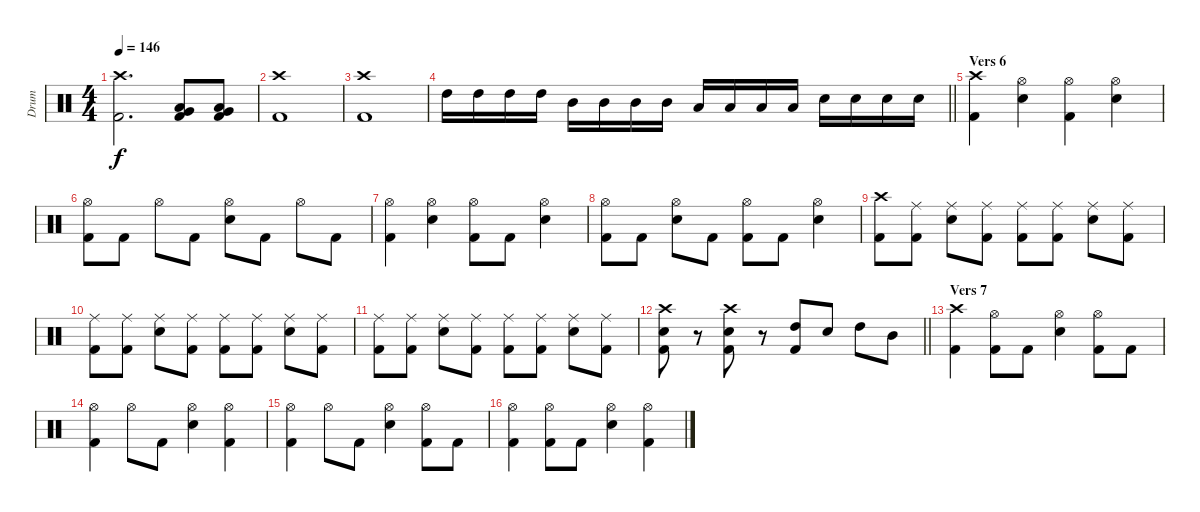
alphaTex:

\track ("Drum" "Drum") {instrument percussion}
\staff {score}
\articulation defaults
\ts (4 4)
\tempo 146
\clef neutral
\ks c
("Crash high (hit)" "Kick (hit) 2").2{d dy f} ("Very Low Tom (hit)" "Low Floor Tom (hit)" "Kick (hit) 2").8 ("Very Low Tom (hit)" "Low Floor Tom (hit)" "Kick (hit) 2").8 |
("Crash high (hit)" "Kick (hit) 2").1 |
("Crash high (hit)" "Kick (hit) 2").1 |
\barLineRight lightlight "High Tom (hit)".16 "High Tom (hit)".16 "High Tom (hit)".16 "High Tom (hit)".16 "Mid Tom (hit)".16 "Mid Tom (hit)".16 "Mid Tom (hit)".16 "Mid Tom (hit)".16 "Low Tom (hit)".16 "Low Tom (hit)".16 "Low Tom (hit)".16 "Low Tom (hit)".16 "Electric Snare (hit)".16 "Electric Snare (hit)".16 "Electric Snare (hit)".16 "Electric Snare (hit)".16
|
\section ("" "Vers 6")
("Crash high (hit)" "Kick (hit) 2").4 ("Hi-Hat (open)" "Electric Snare (hit)").4 ("Hi-Hat (open)" "Kick (hit) 2").4 ("Hi-Hat (open)" "Electric Snare (hit)").4 |
("Hi-Hat (open)" "Kick (hit) 2").8 "Kick (hit) 2".8 "Hi-Hat (open)".8 "Kick (hit) 2".8 ("Hi-Hat (open)" "Electric Snare (hit)").8 "Kick (hit) 2".8 "Hi-Hat (open)".8 "Kick (hit) 2".8 |
("Hi-Hat (open)" "Kick (hit) 2").4 ("Hi-Hat (open)" "Electric Snare (hit)").4 ("Hi-Hat (open)" "Kick (hit) 2").8 "Kick (hit) 2".8 ("Hi-Hat (open)" "Electric Snare (hit)").4 |
("Hi-Hat (open)" "Kick (hit) 2").8 "Kick (hit) 2".8 ("Hi-Hat (open)" "Electric Snare (hit)").8 "Kick (hit) 2".8 ("Hi-Hat (open)" "Kick (hit) 2").8 "Kick (hit) 2".8 ("Hi-Hat (open)" "Electric Snare (hit)").4 |
("Crash high (hit)" "Kick (hit) 2").8 ("Ride (middle)" "Kick (hit) 2").8 ("Ride (middle)" "Electric Snare (hit)").8 ("Ride (middle)" "Kick (hit) 2").8 ("Ride (middle)" "Kick (hit) 2").8 ("Ride (middle)" "Kick (hit) 2").8 ("Ride (middle)" "Electric Snare (hit)").8 ("Ride (middle)" "Kick (hit) 2").8 |
("Ride (middle)" "Kick (hit) 2").8 ("Ride (middle)" "Kick (hit) 2").8 ("Ride (middle)" "Electric Snare (hit)").8 ("Ride (middle)" "Kick (hit) 2").8 ("Ride (middle)" "Kick (hit) 2").8 ("Ride (middle)" "Kick (hit) 2").8 ("Ride (middle)" "Electric Snare (hit)").8 ("Ride (middle)" "Kick (hit) 2").8 |
("Ride (middle)" "Kick (hit) 2").8 ("Ride (middle)" "Kick (hit) 2").8 ("Ride (middle)" "Electric Snare (hit)").8 ("Ride (middle)" "Kick (hit) 2").8 ("Ride (middle)" "Kick (hit) 2").8 ("Ride (middle)" "Kick (hit) 2").8 ("Ride (middle)" "Electric Snare (hit)").8 ("Ride (middle)" "Kick (hit) 2").8 |
\barLineRight lightlight
("Crash high (hit)" "Electric Snare (hit)" "Kick (hit) 2").8 r.8 ("Crash high (hit)" "Electric Snare (hit)" "Kick (hit) 2").8 r.8 ("High Tom (hit)" "Kick (hit) 2").8 "Electric Snare (hit)".8 "High Tom (hit)".8 "Mid Tom (hit)".8 |
\section ("" "Vers 7")
("Crash high (hit)" "Kick (hit) 2").4 ("Hi-Hat (open)" "Kick (hit) 2").8 "Kick (hit) 2".8 ("Hi-Hat (open)" "Electric Snare (hit)").4 ("Hi-Hat (open)" "Kick (hit) 2").8 "Kick (hit) 2".8 |
("Hi-Hat (open)" "Kick (hit) 2").4 "Hi-Hat (open)".8 "Kick (hit) 2".8 ("Hi-Hat (open)" "Electric Snare (hit)").4 ("Hi-Hat (open)" "Kick (hit) 2").4 |
("Hi-Hat (open)" "Kick (hit) 2").4 "Hi-Hat (open)".8 "Kick (hit) 2".8 ("Hi-Hat (open)" "Electric Snare (hit)").4 ("Hi-Hat (open)" "Kick (hit) 2").8 "Kick (hit) 2".8 |
("Hi-Hat (open)" "Kick (hit) 2").4 ("Hi-Hat (open)" "Kick (hit) 2").8 "Kick (hit) 2".8 ("Hi-Hat (open)" "Electric Snare (hit)").4 ("Hi-Hat (open)" "Kick (hit) 2").4
